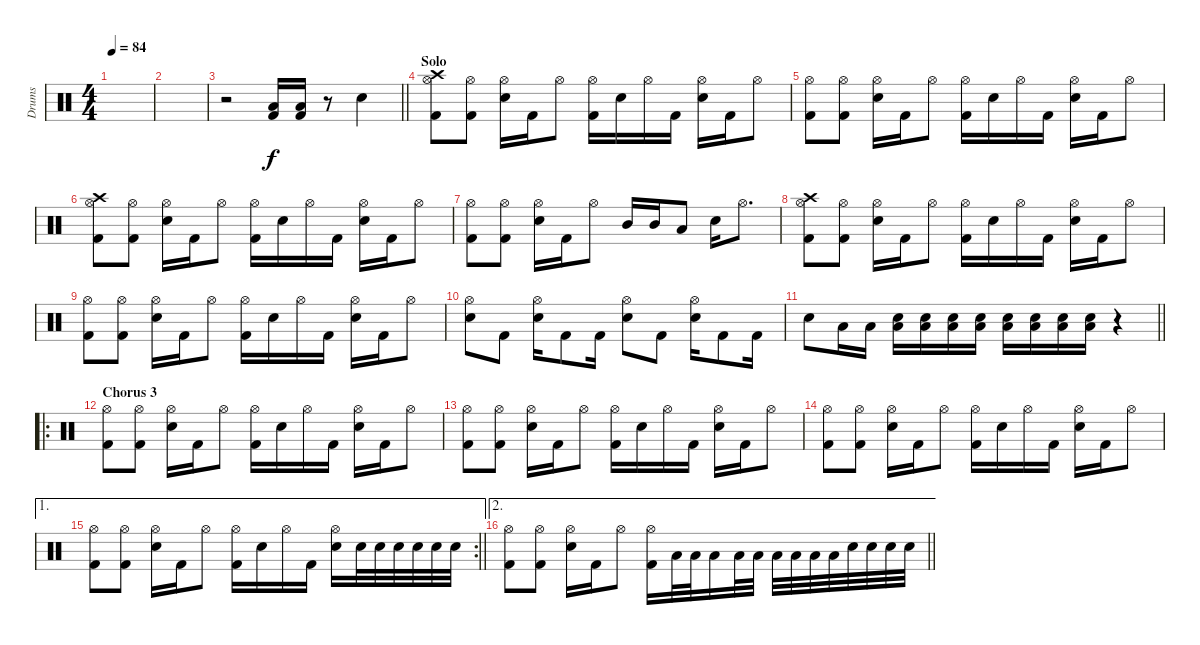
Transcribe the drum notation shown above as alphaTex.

\track ("Drums" "Drums") {instrument percussion}
\staff {score}
\articulation defaults
\ts (4 4)
\tempo 84
\clef neutral
\ks c
|
|
\barLineRight lightlight
r.2 ("Kick (hit) 2" "Low Tom (hit)").16 ("Kick (hit) 2" "Low Tom (hit)").16 r.8 "Snare (hit) 2".4 |
\section ("" "Solo")
("Crash high (hit)" "Kick (hit) 2" "Hi-Hat (open)").8 ("Kick (hit) 2" "Hi-Hat (open)").8 ("Snare (hit) 2" "Hi-Hat (open)").16 "Kick (hit) 2".16 "Hi-Hat (open)".8 ("Kick (hit) 2" "Hi-Hat (open)").16 "Snare (hit) 2".16 "Hi-Hat (open)".16 "Kick (hit) 2".16 ("Snare (hit) 2" "Hi-Hat (open)").16 "Kick (hit) 2".16 "Hi-Hat (open)".8 |
("Kick (hit) 2" "Hi-Hat (open)").8 ("Kick (hit) 2" "Hi-Hat (open)").8 ("Snare (hit) 2" "Hi-Hat (open)").16 "Kick (hit) 2".16 "Hi-Hat (open)".8 ("Kick (hit) 2" "Hi-Hat (open)").16 "Snare (hit) 2".16 "Hi-Hat (open)".16 "Kick (hit) 2".16 ("Snare (hit) 2" "Hi-Hat (open)").16 "Kick (hit) 2".16 "Hi-Hat (open)".8 |
("Crash high (hit)" "Kick (hit) 2" "Hi-Hat (open)").8 ("Kick (hit) 2" "Hi-Hat (open)").8 ("Snare (hit) 2" "Hi-Hat (open)").16 "Kick (hit) 2".16 "Hi-Hat (open)".8 ("Kick (hit) 2" "Hi-Hat (open)").16 "Snare (hit) 2".16 "Hi-Hat (open)".16 "Kick (hit) 2".16 ("Snare (hit) 2" "Hi-Hat (open)").16 "Kick (hit) 2".16 "Hi-Hat (open)".8 |
("Kick (hit) 2" "Hi-Hat (open)").8 ("Kick (hit) 2" "Hi-Hat (open)").8 ("Snare (hit) 2" "Hi-Hat (open)").16 "Kick (hit) 2".16 "Hi-Hat (open)".8 "Mid Tom (hit)".16 "Mid Tom (hit)".16 "Low Tom (hit)".8 "Snare (hit) 2".16 "Hi-Hat (open)".8{d} |
("Crash high (hit)" "Kick (hit) 2" "Hi-Hat (open)").8 ("Kick (hit) 2" "Hi-Hat (open)").8 ("Snare (hit) 2" "Hi-Hat (open)").16 "Kick (hit) 2".16 "Hi-Hat (open)".8 ("Kick (hit) 2" "Hi-Hat (open)").16 "Snare (hit) 2".16 "Hi-Hat (open)".16 "Kick (hit) 2".16 ("Snare (hit) 2" "Hi-Hat (open)").16 "Kick (hit) 2".16 "Hi-Hat (open)".8 |
("Kick (hit) 2" "Hi-Hat (open)").8 ("Kick (hit) 2" "Hi-Hat (open)").8 ("Snare (hit) 2" "Hi-Hat (open)").16 "Kick (hit) 2".16 "Hi-Hat (open)".8 ("Kick (hit) 2" "Hi-Hat (open)").16 "Snare (hit) 2".16 "Hi-Hat (open)".16 "Kick (hit) 2".16 ("Snare (hit) 2" "Hi-Hat (open)").16 "Kick (hit) 2".16 "Hi-Hat (open)".8 |
("Snare (hit) 2" "Hi-Hat (open)").8 "Kick (hit) 2".8 ("Snare (hit) 2" "Hi-Hat (open)").16 "Kick (hit) 2".8 "Kick (hit) 2".16 ("Snare (hit) 2" "Hi-Hat (open)").8 "Kick (hit) 2".8 ("Snare (hit) 2" "Hi-Hat (open)").16 "Kick (hit) 2".8 "Kick (hit) 2".16 |
\barLineRight lightlight "Snare (hit) 2".8 "Low Tom (hit)".16 "Low Tom (hit)".16
("Snare (hit) 2" "Low Tom (hit)").16 ("Snare (hit) 2" "Low Tom (hit)").16 ("Snare (hit) 2" "Low Tom (hit)").16 ("Snare (hit) 2" "Low Tom (hit)").16 ("Snare (hit) 2" "Low Tom (hit)").16 ("Snare (hit) 2" "Low Tom (hit)").16 ("Snare (hit) 2" "Low Tom (hit)").16 ("Snare (hit) 2" "Low Tom (hit)").16 r.4 |
\ro
\section ("" "Chorus 3")
("Kick (hit) 2" "Hi-Hat (open)").8 ("Kick (hit) 2" "Hi-Hat (open)").8 ("Snare (hit) 2" "Hi-Hat (open)").16 "Kick (hit) 2".16 "Hi-Hat (open)".8 ("Kick (hit) 2" "Hi-Hat (open)").16 "Snare (hit) 2".16 "Hi-Hat (open)".16 "Kick (hit) 2".16 ("Snare (hit) 2" "Hi-Hat (open)").16 "Kick (hit) 2".16 "Hi-Hat (open)".8 |
("Kick (hit) 2" "Hi-Hat (open)").8 ("Kick (hit) 2" "Hi-Hat (open)").8 ("Snare (hit) 2" "Hi-Hat (open)").16 "Kick (hit) 2".16 "Hi-Hat (open)".8 ("Kick (hit) 2" "Hi-Hat (open)").16 "Snare (hit) 2".16 "Hi-Hat (open)".16 "Kick (hit) 2".16 ("Snare (hit) 2" "Hi-Hat (open)").16 "Kick (hit) 2".16 "Hi-Hat (open)".8 |
("Kick (hit) 2" "Hi-Hat (open)").8 ("Kick (hit) 2" "Hi-Hat (open)").8 ("Snare (hit) 2" "Hi-Hat (open)").16 "Kick (hit) 2".16 "Hi-Hat (open)".8 ("Kick (hit) 2" "Hi-Hat (open)").16 "Snare (hit) 2".16 "Hi-Hat (open)".16 "Kick (hit) 2".16 ("Snare (hit) 2" "Hi-Hat (open)").16 "Kick (hit) 2".16 "Hi-Hat (open)".8 |
\ae 1
\rc 2
\barLineRight lightlight
("Kick (hit) 2" "Hi-Hat (open)").8 ("Kick (hit) 2" "Hi-Hat (open)").8 ("Snare (hit) 2" "Hi-Hat (open)").16 "Kick (hit) 2".16 "Hi-Hat (open)".8 ("Kick (hit) 2" "Hi-Hat (open)").16 "Snare (hit) 2".16 "Hi-Hat (open)".16 "Kick (hit) 2".16 ("Snare (hit) 2" "Hi-Hat (open)").16 "Snare (hit) 2".32 "Snare (hit) 2".32 "Snare (hit) 2".32 "Snare (hit) 2".32 "Snare (hit) 2".32 "Snare (hit) 2".32 |
\ae 2
\barLineRight lightlight
("Kick (hit) 2" "Hi-Hat (open)").8 ("Kick (hit) 2" "Hi-Hat (open)").8 ("Snare (hit) 2" "Hi-Hat (open)").16 "Kick (hit) 2".16 "Hi-Hat (open)".8 ("Kick (hit) 2" "Hi-Hat (open)").16 "Low Tom (hit)".32 "Low Tom (hit)".32 "Low Floor Tom (hit)".16 "Low Tom (hit)".32 "Low Tom (hit)".32 "Low Floor Tom (hit)".32 "Low Tom (hit)".32 "Low Tom (hit)".32 "Low Tom (hit)".32 "Snare (hit) 2".32 "Snare (hit) 2".32 "Snare (hit) 2".32 "Snare (hit) 2".32
